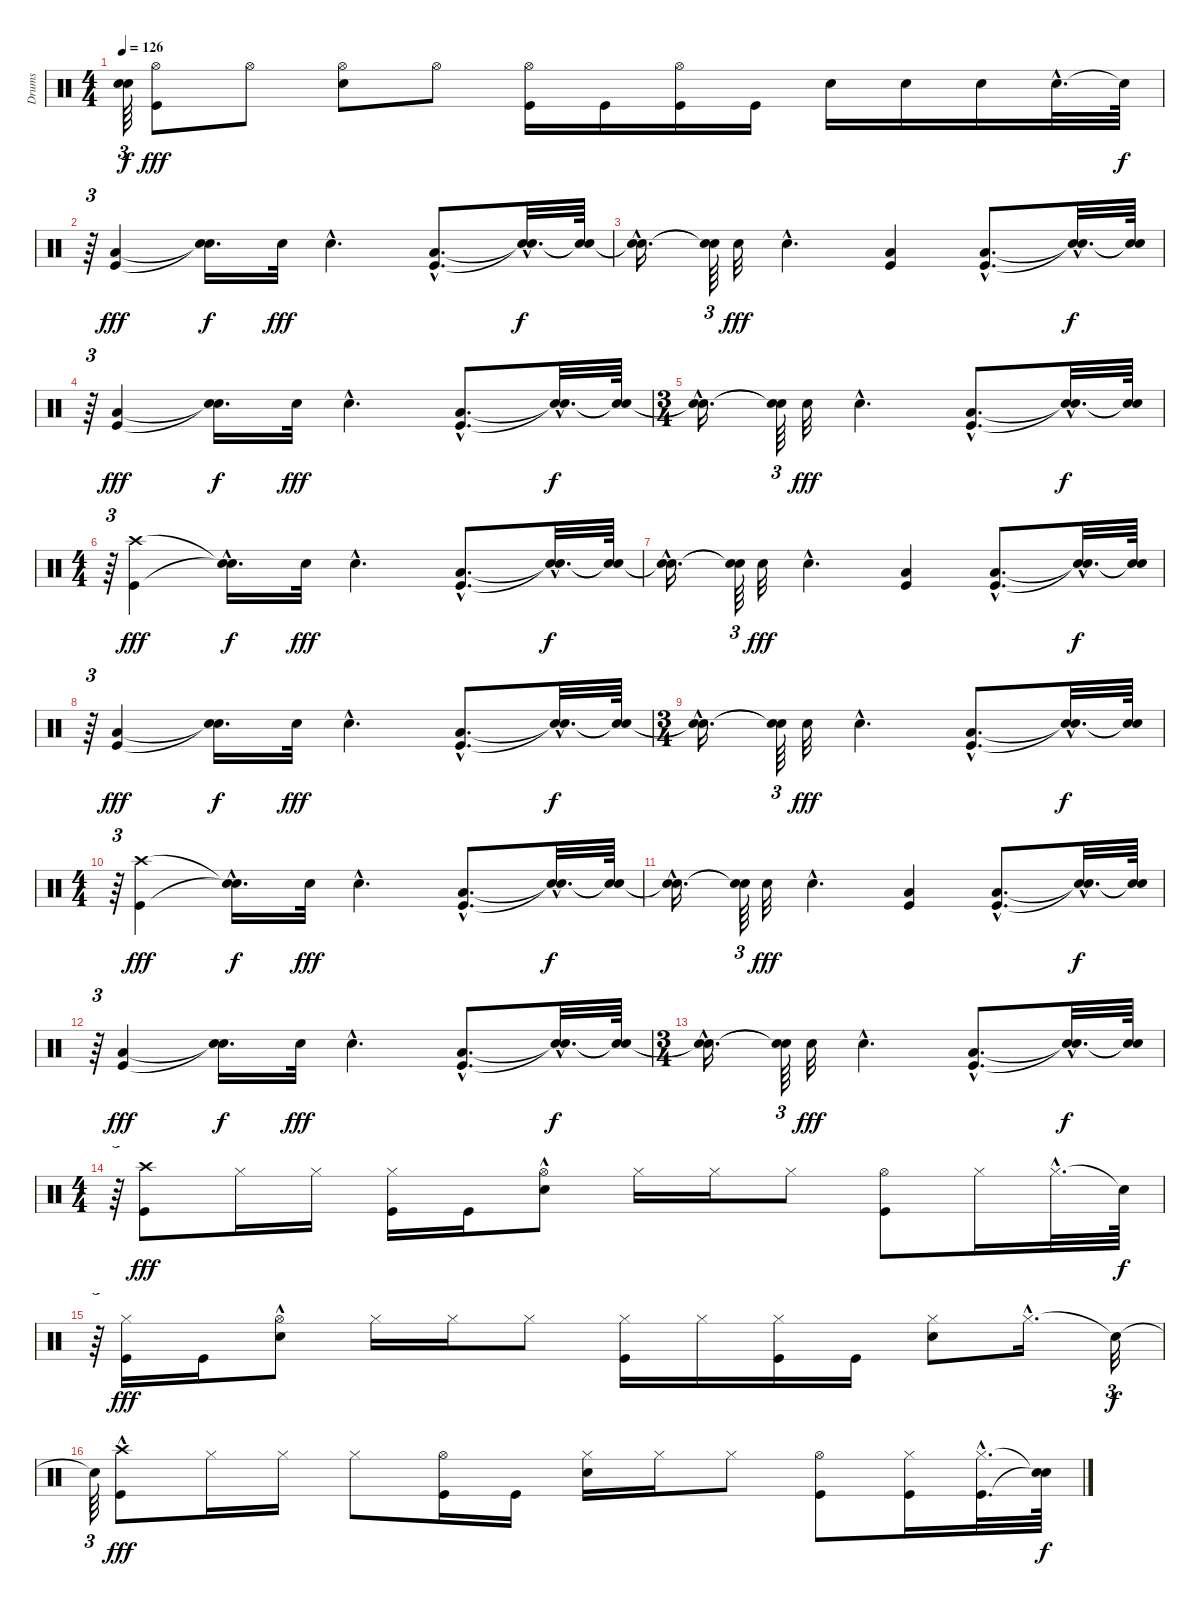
\track ("Drums" "Drums") {instrument percussion}
\staff {score}
\articulation defaults
\ts (4 4)
\tempo 126
\clef neutral
\ks c
("Snare (hit)"{t} "Snare (hit)"{t}).64{tu (3 2) dy f} ("Kick (hit)" "Hi-Hat (open)").8{dy fff} "Hi-Hat (open)".8 ("Snare (hit) 2" "Hi-Hat (open)").8 "Hi-Hat (open)".8 ("Kick (hit)" "Hi-Hat (open)").16 "Kick (hit)".16 ("Kick (hit)" "Hi-Hat (open)").16 "Kick (hit)".16 "Snare (hit) 2".16 "Snare (hit) 2".16 "Snare (hit) 2".16 "Snare (hit) 2"{hac}.32{d} "Snare (hit)"{t}.64{dy f} |
r.64{tu (3 2)} ("Kick (hit)" "Low Tom (hit)").4{dy fff} ("Snare (hit)"{t} "Snare (hit)"{t}).16{d dy f} "Snare (hit) 2".32{dy fff} "Snare (hit) 2"{hac}.4{d} ("Kick (hit)"{hac} "Low Tom (hit)"{hac}).8{d} ("Snare (hit)"{hac t} "Snare (hit)"{hac t}).32{d dy f} ("Snare (hit)"{t} "Snare (hit)"{t}).64 |
("Snare (hit)"{hac t} "Snare (hit)"{hac t}).16{d} ("Snare (hit)"{t} "Snare (hit)"{t}).64{tu (3 2)} "Snare (hit) 2".32{dy fff} "Snare (hit) 2"{hac}.4{d} ("Kick (hit)" "Low Tom (hit)").4 ("Kick (hit)"{hac} "Low Tom (hit)"{hac}).8{d} ("Snare (hit)"{hac t} "Snare (hit)"{hac t}).32{d dy f} ("Snare (hit)"{t} "Snare (hit)"{t}).64 |
r.64{tu (3 2)} ("Kick (hit)" "Low Tom (hit)").4{dy fff} ("Snare (hit)"{t} "Snare (hit)"{t}).16{d dy f} "Snare (hit) 2".32{dy fff} "Snare (hit) 2"{hac}.4{d} ("Kick (hit)"{hac} "Low Tom (hit)"{hac}).8{d} ("Snare (hit)"{hac t} "Snare (hit)"{hac t}).32{d dy f} ("Snare (hit)"{t} "Snare (hit)"{t}).64 |
\ts (3 4)
("Snare (hit)"{hac t} "Snare (hit)"{hac t}).16{d} ("Snare (hit)"{t} "Snare (hit)"{t}).64{tu (3 2)} "Snare (hit) 2".32{dy fff} "Snare (hit) 2"{hac}.4{d} ("Kick (hit)"{hac} "Low Tom (hit)"{hac}).8{d} ("Snare (hit)"{hac t} "Snare (hit)"{hac t}).32{d dy f} ("Snare (hit)"{t} "Snare (hit)"{t}).64 |
\ts (4 4)
r.64{tu (3 2)} ("Kick (hit)" "Crash high (hit)").4{dy fff} ("Snare (hit)"{t} "Snare (hit)"{hac t}).16{d dy f} "Snare (hit) 2".32{dy fff} "Snare (hit) 2"{hac}.4{d} ("Kick (hit)"{hac} "Low Tom (hit)"{hac}).8{d} ("Snare (hit)"{hac t} "Snare (hit)"{hac t}).32{d dy f} ("Snare (hit)"{t} "Snare (hit)"{t}).64 |
("Snare (hit)"{hac t} "Snare (hit)"{hac t}).16{d} ("Snare (hit)"{t} "Snare (hit)"{t}).64{tu (3 2)} "Snare (hit) 2".32{dy fff} "Snare (hit) 2"{hac}.4{d} ("Kick (hit)" "Low Tom (hit)").4 ("Kick (hit)"{hac} "Low Tom (hit)"{hac}).8{d} ("Snare (hit)"{hac t} "Snare (hit)"{hac t}).32{d dy f} ("Snare (hit)"{t} "Snare (hit)"{t}).64 |
r.64{tu (3 2)} ("Kick (hit)" "Low Tom (hit)").4{dy fff} ("Snare (hit)"{t} "Snare (hit)"{t}).16{d dy f} "Snare (hit) 2".32{dy fff} "Snare (hit) 2"{hac}.4{d} ("Kick (hit)"{hac} "Low Tom (hit)"{hac}).8{d} ("Snare (hit)"{hac t} "Snare (hit)"{hac t}).32{d dy f} ("Snare (hit)"{t} "Snare (hit)"{t}).64 |
\ts (3 4)
("Snare (hit)"{hac t} "Snare (hit)"{hac t}).16{d} ("Snare (hit)"{t} "Snare (hit)"{t}).64{tu (3 2)} "Snare (hit) 2".32{dy fff} "Snare (hit) 2"{hac}.4{d} ("Kick (hit)"{hac} "Low Tom (hit)"{hac}).8{d} ("Snare (hit)"{hac t} "Snare (hit)"{hac t}).32{d dy f} ("Snare (hit)"{t} "Snare (hit)"{t}).64 |
\ts (4 4)
r.64{tu (3 2)} ("Kick (hit)" "Crash high (hit)").4{dy fff} ("Snare (hit)"{t} "Snare (hit)"{hac t}).16{d dy f} "Snare (hit) 2".32{dy fff} "Snare (hit) 2"{hac}.4{d} ("Kick (hit)"{hac} "Low Tom (hit)"{hac}).8{d} ("Snare (hit)"{hac t} "Snare (hit)"{hac t}).32{d dy f} ("Snare (hit)"{t} "Snare (hit)"{t}).64 |
("Snare (hit)"{hac t} "Snare (hit)"{hac t}).16{d} ("Snare (hit)"{t} "Snare (hit)"{t}).64{tu (3 2)} "Snare (hit) 2".32{dy fff} "Snare (hit) 2"{hac}.4{d} ("Kick (hit)" "Low Tom (hit)").4 ("Kick (hit)"{hac} "Low Tom (hit)"{hac}).8{d} ("Snare (hit)"{hac t} "Snare (hit)"{hac t}).32{d dy f} ("Snare (hit)"{t} "Snare (hit)"{t}).64 |
r.64{tu (3 2)} ("Kick (hit)" "Low Tom (hit)").4{dy fff} ("Snare (hit)"{t} "Snare (hit)"{t}).16{d dy f} "Snare (hit) 2".32{dy fff} "Snare (hit) 2"{hac}.4{d} ("Kick (hit)"{hac} "Low Tom (hit)"{hac}).8{d} ("Snare (hit)"{hac t} "Snare (hit)"{hac t}).32{d dy f} ("Snare (hit)"{t} "Snare (hit)"{t}).64 |
\ts (3 4)
("Snare (hit)"{hac t} "Snare (hit)"{hac t}).16{d} ("Snare (hit)"{t} "Snare (hit)"{t}).64{tu (3 2)} "Snare (hit) 2".32{dy fff} "Snare (hit) 2"{hac}.4{d} ("Kick (hit)"{hac} "Low Tom (hit)"{hac}).8{d} ("Snare (hit)"{hac t} "Snare (hit)"{hac t}).32{d dy f} ("Snare (hit)"{t} "Snare (hit)"{t}).64 |
\ts (4 4)
r.64{tu (3 2)} ("Kick (hit)" "Crash high (hit)").8{dy fff} "Hi-Hat (closed)".16 "Hi-Hat (closed)".16 ("Kick (hit)" "Hi-Hat (closed)").16 "Kick (hit)".16 ("Snare (hit) 2"{hac} "Hi-Hat (open)").8 "Hi-Hat (closed)".16 "Hi-Hat (closed)".16 "Hi-Hat (closed)".8 ("Kick (hit)" "Hi-Hat (open)").8 "Hi-Hat (closed)".16 "Hi-Hat (closed)"{hac}.32{d} "Snare (hit)"{t}.64{dy f} |
r.64{tu (3 2)} ("Kick (hit)" "Hi-Hat (closed)").16{dy fff} "Kick (hit)".16 ("Snare (hit) 2"{hac} "Hi-Hat (open)").8 "Hi-Hat (closed)".16 "Hi-Hat (closed)".16 "Hi-Hat (closed)".8 ("Kick (hit)" "Hi-Hat (closed)").16 "Hi-Hat (closed)".16 ("Kick (hit)" "Hi-Hat (closed)").16 "Kick (hit)".16 ("Snare (hit) 2" "Hi-Hat (closed)").8 "Hi-Hat (closed)"{hac}.16{d} "Snare (hit)"{t}.32{tu (3 2) dy f} |
"Snare (hit)"{t}.64{tu (3 2)} ("Kick (hit)"{hac} "Crash high (hit)").8{dy fff} "Hi-Hat (closed)".16 "Hi-Hat (closed)".16 "Hi-Hat (closed)".8 ("Kick (hit)" "Hi-Hat (open)").16 "Kick (hit)".16 ("Snare (hit) 2" "Hi-Hat (closed)").16 "Hi-Hat (closed)".16 "Hi-Hat (closed)".8 ("Kick (hit)" "Hi-Hat (open)").8 ("Kick (hit)" "Hi-Hat (closed)").16 ("Kick (hit)"{hac} "Hi-Hat (closed)"{hac}).32{d} ("Snare (hit)"{t} "Snare (hit)"{t}).64{dy f}
